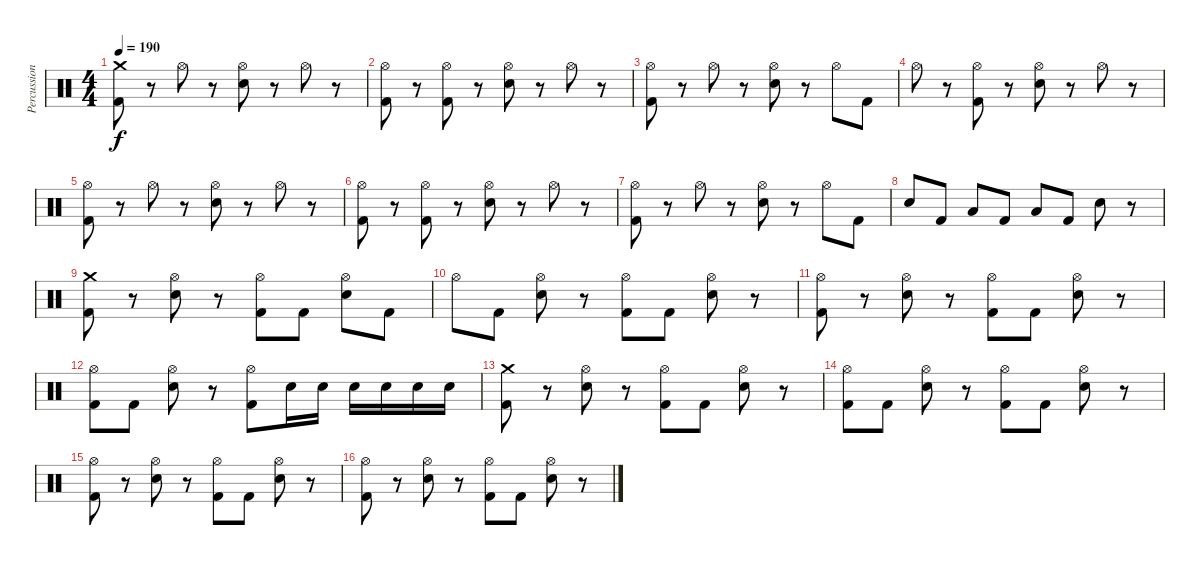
\track ("Percussion" "Percussion") {instrument percussion}
\staff {score}
\articulation defaults
\ts (4 4)
\tempo 190
\clef neutral
\ks c
("Crash medium (hit)" "Kick (hit) 2").8{dy f} r.8 "Hi-Hat (open)".8 r.8 ("Hi-Hat (open)" "Electric Snare (hit)").8 r.8 "Hi-Hat (open)".8 r.8 |
("Hi-Hat (open)" "Kick (hit) 2").8 r.8 ("Hi-Hat (open)" "Kick (hit) 2").8 r.8 ("Hi-Hat (open)" "Electric Snare (hit)").8 r.8 "Hi-Hat (open)".8 r.8 |
("Hi-Hat (open)" "Kick (hit) 2").8 r.8 "Hi-Hat (open)".8 r.8 ("Hi-Hat (open)" "Electric Snare (hit)").8 r.8 "Hi-Hat (open)".8 "Kick (hit) 2".8 |
"Hi-Hat (open)".8 r.8 ("Hi-Hat (open)" "Kick (hit) 2").8 r.8 ("Hi-Hat (open)" "Electric Snare (hit)").8 r.8 "Hi-Hat (open)".8 r.8 |
("Hi-Hat (open)" "Kick (hit) 2").8 r.8 "Hi-Hat (open)".8 r.8 ("Hi-Hat (open)" "Electric Snare (hit)").8 r.8 "Hi-Hat (open)".8 r.8 |
("Hi-Hat (open)" "Kick (hit) 2").8 r.8 ("Hi-Hat (open)" "Kick (hit) 2").8 r.8 ("Hi-Hat (open)" "Electric Snare (hit)").8 r.8 "Hi-Hat (open)".8 r.8 |
("Hi-Hat (open)" "Kick (hit) 2").8 r.8 "Hi-Hat (open)".8 r.8 ("Hi-Hat (open)" "Electric Snare (hit)").8 r.8 "Hi-Hat (open)".8 "Kick (hit) 2".8 |
"Electric Snare (hit)".8 "Kick (hit) 2".8 "Low Tom (hit)".8 "Kick (hit) 2".8 "Low Tom (hit)".8 "Kick (hit) 2".8 "Electric Snare (hit)".8 r.8 |
("Crash medium (hit)" "Kick (hit) 2").8 r.8 ("Hi-Hat (open)" "Electric Snare (hit)").8 r.8 ("Hi-Hat (open)" "Kick (hit) 2").8 "Kick (hit) 2".8 ("Hi-Hat (open)" "Electric Snare (hit)").8 "Kick (hit) 2".8 |
"Hi-Hat (open)".8 "Kick (hit) 2".8 ("Hi-Hat (open)" "Electric Snare (hit)").8 r.8 ("Hi-Hat (open)" "Kick (hit) 2").8 "Kick (hit) 2".8 ("Hi-Hat (open)" "Electric Snare (hit)").8 r.8 |
("Hi-Hat (open)" "Kick (hit) 2").8 r.8 ("Hi-Hat (open)" "Electric Snare (hit)").8 r.8 ("Hi-Hat (open)" "Kick (hit) 2").8 "Kick (hit) 2".8 ("Hi-Hat (open)" "Electric Snare (hit)").8 r.8 |
("Hi-Hat (open)" "Kick (hit) 2").8 "Kick (hit) 2".8 ("Hi-Hat (open)" "Electric Snare (hit)").8 r.8 ("Hi-Hat (open)" "Kick (hit) 2").8 "Electric Snare (hit)".16 "Electric Snare (hit)".16 "Electric Snare (hit)".16 "Electric Snare (hit)".16 "Electric Snare (hit)".16 "Electric Snare (hit)".16 |
("Crash medium (hit)" "Kick (hit) 2").8 r.8 ("Hi-Hat (open)" "Electric Snare (hit)").8 r.8 ("Hi-Hat (open)" "Kick (hit) 2").8 "Kick (hit) 2".8 ("Hi-Hat (open)" "Electric Snare (hit)").8 r.8 |
("Hi-Hat (open)" "Kick (hit) 2").8 "Kick (hit) 2".8 ("Hi-Hat (open)" "Electric Snare (hit)").8 r.8 ("Hi-Hat (open)" "Kick (hit) 2").8 "Kick (hit) 2".8 ("Hi-Hat (open)" "Electric Snare (hit)").8 r.8 |
("Hi-Hat (open)" "Kick (hit) 2").8 r.8 ("Hi-Hat (open)" "Electric Snare (hit)").8 r.8 ("Hi-Hat (open)" "Kick (hit) 2").8 "Kick (hit) 2".8 ("Hi-Hat (open)" "Electric Snare (hit)").8 r.8 |
("Hi-Hat (open)" "Kick (hit) 2").8 r.8 ("Hi-Hat (open)" "Electric Snare (hit)").8 r.8 ("Hi-Hat (open)" "Kick (hit) 2").8 "Kick (hit) 2".8 ("Hi-Hat (open)" "Electric Snare (hit)").8 r.8
